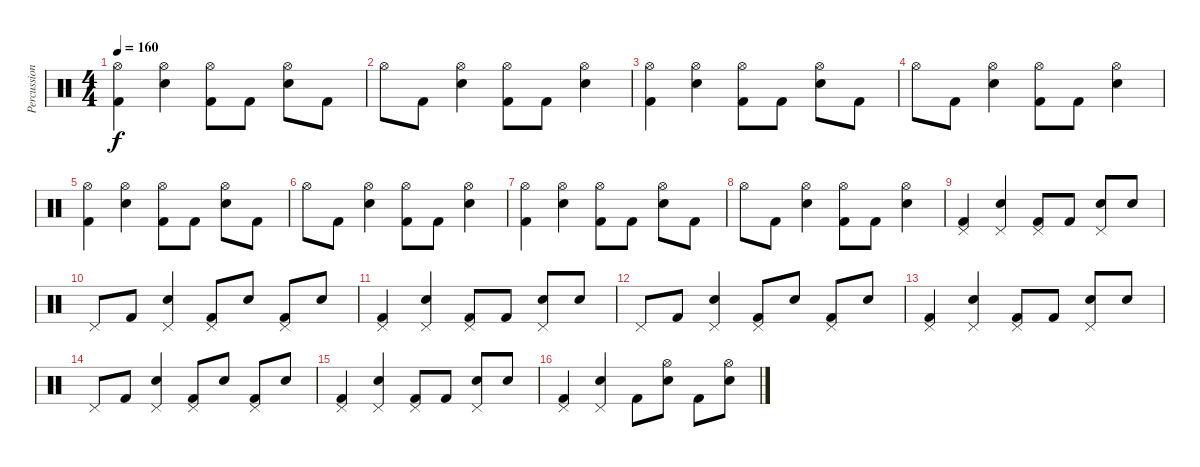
\track ("Percussion" "Percussion") {instrument percussion}
\staff {score}
\articulation defaults
\ts (4 4)
\tempo 160
\clef neutral
\ks c
("Hi-Hat (open)" "Kick (hit) 2").4{dy f} ("Hi-Hat (open)" "Snare (hit) 2").4 ("Hi-Hat (open)" "Kick (hit) 2").8 "Kick (hit) 2".8 ("Hi-Hat (open)" "Snare (hit) 2").8 "Kick (hit) 2".8 |
"Hi-Hat (open)".8 "Kick (hit) 2".8 ("Hi-Hat (open)" "Snare (hit) 2").4 ("Hi-Hat (open)" "Kick (hit) 2").8 "Kick (hit) 2".8 ("Hi-Hat (open)" "Snare (hit) 2").4 |
("Hi-Hat (open)" "Kick (hit) 2").4 ("Hi-Hat (open)" "Snare (hit) 2").4 ("Hi-Hat (open)" "Kick (hit) 2").8 "Kick (hit) 2".8 ("Hi-Hat (open)" "Snare (hit) 2").8 "Kick (hit) 2".8 |
"Hi-Hat (open)".8 "Kick (hit) 2".8 ("Hi-Hat (open)" "Snare (hit) 2").4 ("Hi-Hat (open)" "Kick (hit) 2").8 "Kick (hit) 2".8 ("Hi-Hat (open)" "Snare (hit) 2").4 |
("Hi-Hat (open)" "Kick (hit) 2").4 ("Hi-Hat (open)" "Snare (hit) 2").4 ("Hi-Hat (open)" "Kick (hit) 2").8 "Kick (hit) 2".8 ("Hi-Hat (open)" "Snare (hit) 2").8 "Kick (hit) 2".8 |
"Hi-Hat (open)".8 "Kick (hit) 2".8 ("Hi-Hat (open)" "Snare (hit) 2").4 ("Hi-Hat (open)" "Kick (hit) 2").8 "Kick (hit) 2".8 ("Hi-Hat (open)" "Snare (hit) 2").4 |
("Hi-Hat (open)" "Kick (hit) 2").4 ("Hi-Hat (open)" "Snare (hit) 2").4 ("Hi-Hat (open)" "Kick (hit) 2").8 "Kick (hit) 2".8 ("Hi-Hat (open)" "Snare (hit) 2").8 "Kick (hit) 2".8 |
"Hi-Hat (open)".8 "Kick (hit) 2".8 ("Hi-Hat (open)" "Snare (hit) 2").4 ("Hi-Hat (open)" "Kick (hit) 2").8 "Kick (hit) 2".8 ("Hi-Hat (open)" "Snare (hit) 2").4 |
("Pedal Hi-Hat (hit)" "Kick (hit) 2").4 ("Pedal Hi-Hat (hit)" "Snare (hit) 2").4 ("Pedal Hi-Hat (hit)" "Kick (hit) 2").8 "Kick (hit) 2".8 ("Pedal Hi-Hat (hit)" "Snare (hit) 2").8 "Snare (hit) 2".8 |
"Pedal Hi-Hat (hit)".8 "Kick (hit) 2".8 ("Pedal Hi-Hat (hit)" "Snare (hit) 2").4 ("Pedal Hi-Hat (hit)" "Kick (hit) 2").8 "Snare (hit) 2".8 ("Pedal Hi-Hat (hit)" "Kick (hit) 2").8 "Snare (hit) 2".8 |
("Pedal Hi-Hat (hit)" "Kick (hit) 2").4 ("Pedal Hi-Hat (hit)" "Snare (hit) 2").4 ("Pedal Hi-Hat (hit)" "Kick (hit) 2").8 "Kick (hit) 2".8 ("Pedal Hi-Hat (hit)" "Snare (hit) 2").8 "Snare (hit) 2".8 |
"Pedal Hi-Hat (hit)".8 "Kick (hit) 2".8 ("Pedal Hi-Hat (hit)" "Snare (hit) 2").4 ("Pedal Hi-Hat (hit)" "Kick (hit) 2").8 "Snare (hit) 2".8 ("Pedal Hi-Hat (hit)" "Kick (hit) 2").8 "Snare (hit) 2".8 |
("Pedal Hi-Hat (hit)" "Kick (hit) 2").4 ("Pedal Hi-Hat (hit)" "Snare (hit) 2").4 ("Pedal Hi-Hat (hit)" "Kick (hit) 2").8 "Kick (hit) 2".8 ("Pedal Hi-Hat (hit)" "Snare (hit) 2").8 "Snare (hit) 2".8 |
"Pedal Hi-Hat (hit)".8 "Kick (hit) 2".8 ("Pedal Hi-Hat (hit)" "Snare (hit) 2").4 ("Pedal Hi-Hat (hit)" "Kick (hit) 2").8 "Snare (hit) 2".8 ("Pedal Hi-Hat (hit)" "Kick (hit) 2").8 "Snare (hit) 2".8 |
("Pedal Hi-Hat (hit)" "Kick (hit) 2").4 ("Pedal Hi-Hat (hit)" "Snare (hit) 2").4 ("Pedal Hi-Hat (hit)" "Kick (hit) 2").8 "Kick (hit) 2".8 ("Pedal Hi-Hat (hit)" "Snare (hit) 2").8 "Snare (hit) 2".8 |
("Pedal Hi-Hat (hit)" "Kick (hit) 2").4 ("Pedal Hi-Hat (hit)" "Snare (hit) 2").4 "Kick (hit) 2".8 ("Hi-Hat (open)" "Snare (hit) 2").8 "Kick (hit) 2".8 ("Hi-Hat (open)" "Snare (hit) 2").8
